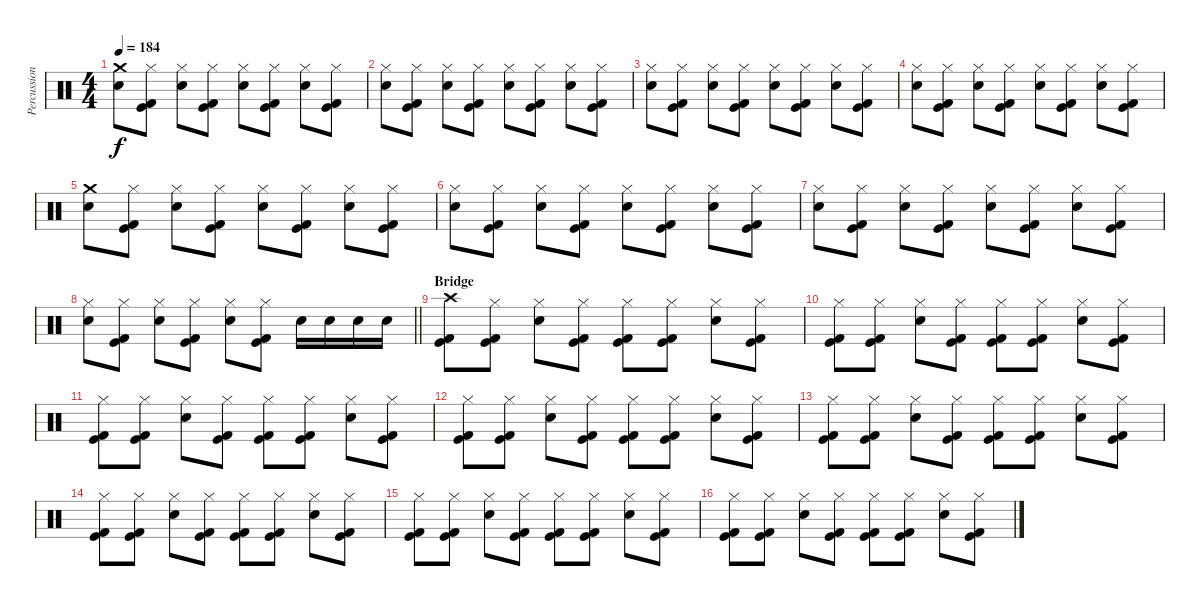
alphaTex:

\track ("Percussion" "Percussion") {instrument percussion}
\staff {score}
\articulation defaults
\ts (4 4)
\section ("" "")
\tempo 184
\clef neutral
\ks c
("Crash medium (hit)" "Electric Snare (hit)").8{dy f} ("Hi-Hat (closed)" "Kick (hit)" "Kick (hit) 2").8 ("Hi-Hat (closed)" "Electric Snare (hit)").8 ("Hi-Hat (closed)" "Kick (hit)" "Kick (hit) 2").8 ("Hi-Hat (closed)" "Electric Snare (hit)").8 ("Hi-Hat (closed)" "Kick (hit)" "Kick (hit) 2").8 ("Hi-Hat (closed)" "Electric Snare (hit)").8 ("Hi-Hat (closed)" "Kick (hit)" "Kick (hit) 2").8 |
("Hi-Hat (closed)" "Electric Snare (hit)").8 ("Hi-Hat (closed)" "Kick (hit)" "Kick (hit) 2").8 ("Hi-Hat (closed)" "Electric Snare (hit)").8 ("Hi-Hat (closed)" "Kick (hit)" "Kick (hit) 2").8 ("Hi-Hat (closed)" "Electric Snare (hit)").8 ("Hi-Hat (closed)" "Kick (hit)" "Kick (hit) 2").8 ("Hi-Hat (closed)" "Electric Snare (hit)").8 ("Hi-Hat (closed)" "Kick (hit)" "Kick (hit) 2").8 |
("Hi-Hat (closed)" "Electric Snare (hit)").8 ("Hi-Hat (closed)" "Kick (hit)" "Kick (hit) 2").8 ("Hi-Hat (closed)" "Electric Snare (hit)").8 ("Hi-Hat (closed)" "Kick (hit)" "Kick (hit) 2").8 ("Hi-Hat (closed)" "Electric Snare (hit)").8 ("Hi-Hat (closed)" "Kick (hit)" "Kick (hit) 2").8 ("Hi-Hat (closed)" "Electric Snare (hit)").8 ("Hi-Hat (closed)" "Kick (hit)" "Kick (hit) 2").8 |
("Hi-Hat (closed)" "Electric Snare (hit)").8 ("Hi-Hat (closed)" "Kick (hit)" "Kick (hit) 2").8 ("Hi-Hat (closed)" "Electric Snare (hit)").8 ("Hi-Hat (closed)" "Kick (hit)" "Kick (hit) 2").8 ("Hi-Hat (closed)" "Electric Snare (hit)").8 ("Hi-Hat (closed)" "Kick (hit)" "Kick (hit) 2").8 ("Hi-Hat (closed)" "Electric Snare (hit)").8 ("Hi-Hat (closed)" "Kick (hit)" "Kick (hit) 2").8 |
("Crash medium (hit)" "Electric Snare (hit)").8 ("Hi-Hat (closed)" "Kick (hit)" "Kick (hit) 2").8 ("Hi-Hat (closed)" "Electric Snare (hit)").8 ("Hi-Hat (closed)" "Kick (hit)" "Kick (hit) 2").8 ("Hi-Hat (closed)" "Electric Snare (hit)").8 ("Hi-Hat (closed)" "Kick (hit)" "Kick (hit) 2").8 ("Hi-Hat (closed)" "Electric Snare (hit)").8 ("Hi-Hat (closed)" "Kick (hit)" "Kick (hit) 2").8 |
("Hi-Hat (closed)" "Electric Snare (hit)").8 ("Hi-Hat (closed)" "Kick (hit)" "Kick (hit) 2").8 ("Hi-Hat (closed)" "Electric Snare (hit)").8 ("Hi-Hat (closed)" "Kick (hit)" "Kick (hit) 2").8 ("Hi-Hat (closed)" "Electric Snare (hit)").8 ("Hi-Hat (closed)" "Kick (hit)" "Kick (hit) 2").8 ("Hi-Hat (closed)" "Electric Snare (hit)").8 ("Hi-Hat (closed)" "Kick (hit)" "Kick (hit) 2").8 |
("Hi-Hat (closed)" "Electric Snare (hit)").8 ("Hi-Hat (closed)" "Kick (hit)" "Kick (hit) 2").8 ("Hi-Hat (closed)" "Electric Snare (hit)").8 ("Hi-Hat (closed)" "Kick (hit)" "Kick (hit) 2").8 ("Hi-Hat (closed)" "Electric Snare (hit)").8 ("Hi-Hat (closed)" "Kick (hit)" "Kick (hit) 2").8 ("Hi-Hat (closed)" "Electric Snare (hit)").8 ("Hi-Hat (closed)" "Kick (hit)" "Kick (hit) 2").8 |
\barLineRight lightlight
("Hi-Hat (closed)" "Electric Snare (hit)").8 ("Hi-Hat (closed)" "Kick (hit)" "Kick (hit) 2").8 ("Hi-Hat (closed)" "Electric Snare (hit)").8 ("Hi-Hat (closed)" "Kick (hit)" "Kick (hit) 2").8 ("Hi-Hat (closed)" "Electric Snare (hit)").8 ("Hi-Hat (closed)" "Kick (hit)" "Kick (hit) 2").8 "Electric Snare (hit)".16 "Electric Snare (hit)".16 "Electric Snare (hit)".16 "Electric Snare (hit)".16 |
\section ("" "Bridge")
("Crash high (hit)" "Kick (hit)" "Kick (hit) 2").8 ("Hi-Hat (closed)" "Kick (hit)" "Kick (hit) 2").8 ("Hi-Hat (closed)" "Electric Snare (hit)").8 ("Hi-Hat (closed)" "Kick (hit)" "Kick (hit) 2").8 ("Hi-Hat (closed)" "Kick (hit)" "Kick (hit) 2").8 ("Hi-Hat (closed)" "Kick (hit)" "Kick (hit) 2").8 ("Hi-Hat (closed)" "Electric Snare (hit)").8 ("Hi-Hat (closed)" "Kick (hit)" "Kick (hit) 2").8 |
("Hi-Hat (closed)" "Kick (hit)" "Kick (hit) 2").8 ("Hi-Hat (closed)" "Kick (hit)" "Kick (hit) 2").8 ("Hi-Hat (closed)" "Electric Snare (hit)").8 ("Hi-Hat (closed)" "Kick (hit)" "Kick (hit) 2").8 ("Hi-Hat (closed)" "Kick (hit)" "Kick (hit) 2").8 ("Hi-Hat (closed)" "Kick (hit)" "Kick (hit) 2").8 ("Hi-Hat (closed)" "Electric Snare (hit)").8 ("Hi-Hat (closed)" "Kick (hit)" "Kick (hit) 2").8 |
("Hi-Hat (closed)" "Kick (hit)" "Kick (hit) 2").8 ("Hi-Hat (closed)" "Kick (hit)" "Kick (hit) 2").8 ("Hi-Hat (closed)" "Electric Snare (hit)").8 ("Hi-Hat (closed)" "Kick (hit)" "Kick (hit) 2").8 ("Hi-Hat (closed)" "Kick (hit)" "Kick (hit) 2").8 ("Hi-Hat (closed)" "Kick (hit)" "Kick (hit) 2").8 ("Hi-Hat (closed)" "Electric Snare (hit)").8 ("Hi-Hat (closed)" "Kick (hit)" "Kick (hit) 2").8 |
("Hi-Hat (closed)" "Kick (hit)" "Kick (hit) 2").8 ("Hi-Hat (closed)" "Kick (hit)" "Kick (hit) 2").8 ("Hi-Hat (closed)" "Electric Snare (hit)").8 ("Hi-Hat (closed)" "Kick (hit)" "Kick (hit) 2").8 ("Hi-Hat (closed)" "Kick (hit)" "Kick (hit) 2").8 ("Hi-Hat (closed)" "Kick (hit)" "Kick (hit) 2").8 ("Hi-Hat (closed)" "Electric Snare (hit)").8 ("Hi-Hat (closed)" "Kick (hit)" "Kick (hit) 2").8 |
("Hi-Hat (closed)" "Kick (hit)" "Kick (hit) 2").8 ("Hi-Hat (closed)" "Kick (hit)" "Kick (hit) 2").8 ("Hi-Hat (closed)" "Electric Snare (hit)").8 ("Hi-Hat (closed)" "Kick (hit)" "Kick (hit) 2").8 ("Hi-Hat (closed)" "Kick (hit)" "Kick (hit) 2").8 ("Hi-Hat (closed)" "Kick (hit)" "Kick (hit) 2").8 ("Hi-Hat (closed)" "Electric Snare (hit)").8 ("Hi-Hat (closed)" "Kick (hit)" "Kick (hit) 2").8 |
("Hi-Hat (closed)" "Kick (hit)" "Kick (hit) 2").8 ("Hi-Hat (closed)" "Kick (hit)" "Kick (hit) 2").8 ("Hi-Hat (closed)" "Electric Snare (hit)").8 ("Hi-Hat (closed)" "Kick (hit)" "Kick (hit) 2").8 ("Hi-Hat (closed)" "Kick (hit)" "Kick (hit) 2").8 ("Hi-Hat (closed)" "Kick (hit)" "Kick (hit) 2").8 ("Hi-Hat (closed)" "Electric Snare (hit)").8 ("Hi-Hat (closed)" "Kick (hit)" "Kick (hit) 2").8 |
("Hi-Hat (closed)" "Kick (hit)" "Kick (hit) 2").8 ("Hi-Hat (closed)" "Kick (hit)" "Kick (hit) 2").8 ("Hi-Hat (closed)" "Electric Snare (hit)").8 ("Hi-Hat (closed)" "Kick (hit)" "Kick (hit) 2").8 ("Hi-Hat (closed)" "Kick (hit)" "Kick (hit) 2").8 ("Hi-Hat (closed)" "Kick (hit)" "Kick (hit) 2").8 ("Hi-Hat (closed)" "Electric Snare (hit)").8 ("Hi-Hat (closed)" "Kick (hit)" "Kick (hit) 2").8 |
("Hi-Hat (closed)" "Kick (hit)" "Kick (hit) 2").8 ("Hi-Hat (closed)" "Kick (hit)" "Kick (hit) 2").8 ("Hi-Hat (closed)" "Electric Snare (hit)").8 ("Hi-Hat (closed)" "Kick (hit)" "Kick (hit) 2").8 ("Hi-Hat (closed)" "Kick (hit)" "Kick (hit) 2").8 ("Hi-Hat (closed)" "Kick (hit)" "Kick (hit) 2").8 ("Hi-Hat (closed)" "Electric Snare (hit)").8 ("Hi-Hat (closed)" "Kick (hit)" "Kick (hit) 2").8
